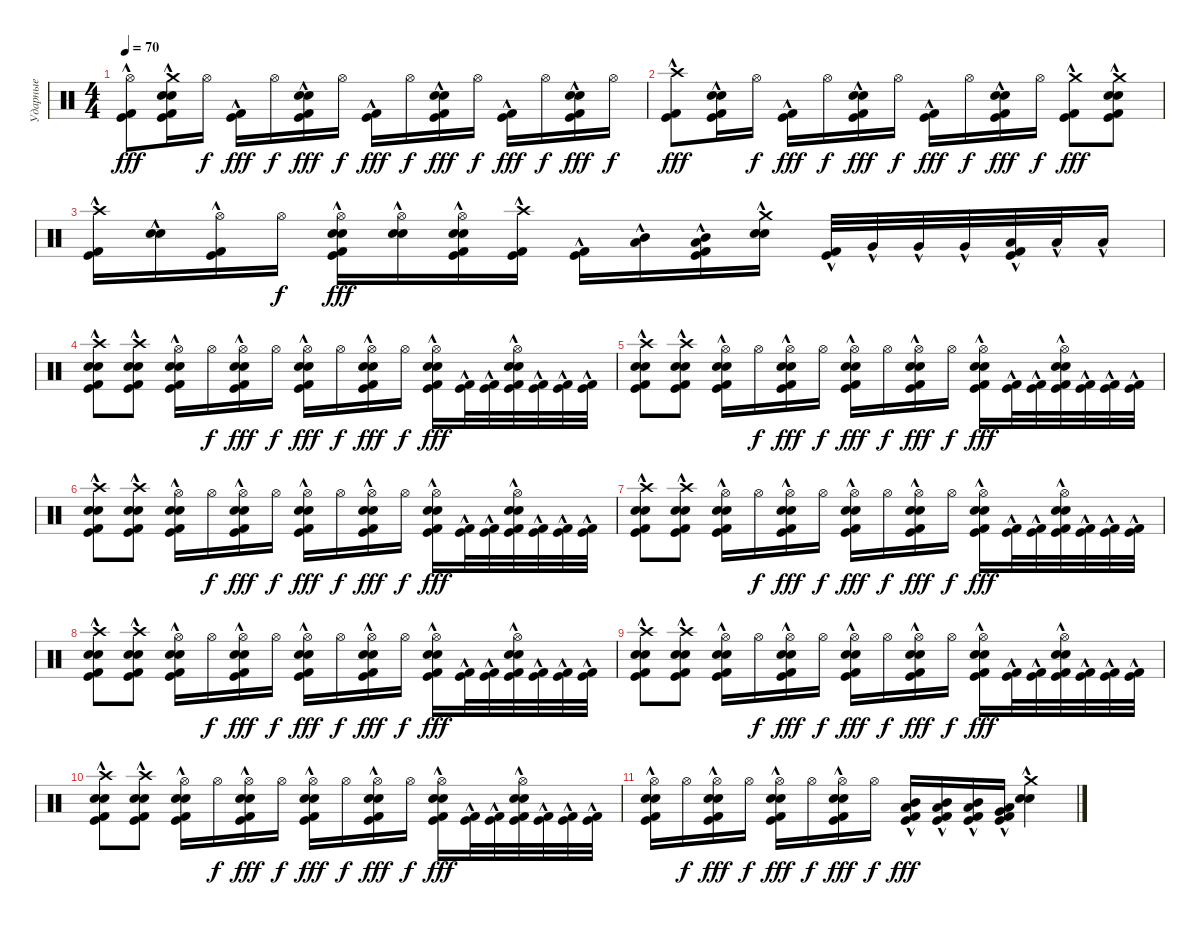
\track ("Ударные" "Ударные") {instrument percussion}
\staff {score}
\articulation defaults
\ts (4 4)
\tempo 70
\clef neutral
\ks c
("Hi-Hat (open)" "Kick (hit)"{hac} "Kick (hit) 2"{hac}).8{dy fff} ("Crash medium (hit)"{hac} "Snare (hit) 2"{hac} "Electric Snare (hit)"{hac} "Kick (hit)"{hac} "Kick (hit) 2"{hac}).16 "Hi-Hat (open)".16{dy f} ("Kick (hit)"{hac} "Kick (hit) 2"{hac}).16{dy fff} "Hi-Hat (open)".16{dy f} ("Snare (hit) 2"{hac} "Electric Snare (hit)"{hac} "Kick (hit)"{hac} "Kick (hit) 2"{hac}).16{dy fff} "Hi-Hat (open)".16{dy f} ("Kick (hit)"{hac} "Kick (hit) 2"{hac}).16{dy fff} "Hi-Hat (open)".16{dy f} ("Snare (hit) 2"{hac} "Electric Snare (hit)"{hac} "Kick (hit)"{hac} "Kick (hit) 2"{hac}).16{dy fff} "Hi-Hat (open)".16{dy f} ("Kick (hit)"{hac} "Kick (hit) 2"{hac}).16{dy fff} "Hi-Hat (open)".16{dy f} ("Snare (hit) 2"{hac} "Electric Snare (hit)"{hac} "Kick (hit)"{hac} "Kick (hit) 2"{hac}).16{dy fff} "Hi-Hat (open)".16{dy f} |
("Crash high (hit)"{hac} "Kick (hit)"{hac} "Kick (hit) 2"{hac}).8{dy fff} ("Snare (hit) 2"{hac} "Electric Snare (hit)"{hac} "Kick (hit)"{hac} "Kick (hit) 2"{hac}).16 "Hi-Hat (open)".16{dy f} ("Kick (hit)"{hac} "Kick (hit) 2"{hac}).16{dy fff} "Hi-Hat (open)".16{dy f} ("Snare (hit) 2"{hac} "Electric Snare (hit)"{hac} "Kick (hit)"{hac} "Kick (hit) 2"{hac}).16{dy fff} "Hi-Hat (open)".16{dy f} ("Kick (hit)"{hac} "Kick (hit) 2"{hac}).16{dy fff} "Hi-Hat (open)".16{dy f} ("Snare (hit) 2"{hac} "Electric Snare (hit)"{hac} "Kick (hit)"{hac} "Kick (hit) 2"{hac}).16{dy fff} "Hi-Hat (open)".16{dy f} ("Crash medium (hit)"{hac} "Kick (hit)"{hac} "Kick (hit) 2"{hac}).8{dy fff} ("Crash medium (hit)"{hac} "Snare (hit) 2"{hac} "Electric Snare (hit)"{hac} "Kick (hit)"{hac} "Kick (hit) 2"{hac}).8 |
("Crash high (hit)"{hac} "Kick (hit) 2"{hac} "Kick (hit)"{hac}).16 ("Snare (hit) 2"{hac} "Electric Snare (hit)"{hac}).16 ("Hi-Hat (open)" "Kick (hit) 2"{hac} "Kick (hit)"{hac}).16 "Hi-Hat (open)".16{dy f} ("Hi-Hat (open)" "Snare (hit) 2"{hac} "Electric Snare (hit)"{hac} "Kick (hit) 2"{hac} "Kick (hit)"{hac}).16{dy fff} ("Hi-Hat (open)" "Snare (hit) 2"{hac} "Electric Snare (hit)"{hac}).16 ("Hi-Hat (open)" "Snare (hit) 2"{hac} "Electric Snare (hit)"{hac} "Kick (hit) 2"{hac} "Kick (hit)"{hac}).16 ("Crash high (hit)"{hac} "Kick (hit)"{hac} "Kick (hit) 2"{hac}).16 ("Kick (hit) 2"{hac} "Kick (hit)"{hac}).16 ("Mid Tom (hit)"{hac} "Low Tom (hit)"{hac}).16 ("Mid Tom (hit)"{hac} "Low Tom (hit)"{hac} "Kick (hit) 2"{hac} "Kick (hit)"{hac}).16 ("Crash medium (hit)"{hac} "Electric Snare (hit)"{hac} "Snare (hit) 2").16 ("Kick (hit) 2"{hac} "Kick (hit)"{hac}).32 "Very Low Tom (hit)"{hac}.32 "Very Low Tom (hit)"{hac}.32 "Very Low Tom (hit)"{hac}.32 ("Low Floor Tom (hit)"{hac} "Kick (hit)"{hac} "Kick (hit) 2"{hac}).32 "Low Floor Tom (hit)"{hac}.32 "Low Floor Tom (hit)"{hac}.16 |
("Crash high (hit)"{hac} "Kick (hit) 2"{hac} "Snare (hit) 2"{hac} "Kick (hit)"{hac} "Electric Snare (hit)"{hac}).8 ("Crash high (hit)"{hac} "Kick (hit) 2"{hac} "Snare (hit) 2"{hac} "Kick (hit)"{hac} "Electric Snare (hit)"{hac}).8 ("Hi-Hat (open)" "Kick (hit) 2"{hac} "Snare (hit) 2"{hac} "Kick (hit)"{hac} "Electric Snare (hit)"{hac}).16 "Hi-Hat (open)".16{dy f} ("Hi-Hat (open)" "Kick (hit) 2"{hac} "Snare (hit) 2"{hac} "Kick (hit)"{hac} "Electric Snare (hit)"{hac}).16{dy fff} "Hi-Hat (open)".16{dy f} ("Hi-Hat (open)" "Kick (hit) 2"{hac} "Snare (hit) 2"{hac} "Kick (hit)"{hac} "Electric Snare (hit)"{hac}).16{dy fff} "Hi-Hat (open)".16{dy f} ("Hi-Hat (open)" "Kick (hit) 2"{hac} "Snare (hit) 2"{hac} "Kick (hit)"{hac} "Electric Snare (hit)"{hac}).16{dy fff} "Hi-Hat (open)".16{dy f} ("Hi-Hat (open)" "Kick (hit) 2"{hac} "Snare (hit) 2"{hac} "Kick (hit)"{hac} "Electric Snare (hit)"{hac}).16{dy fff} ("Kick (hit) 2"{hac} "Kick (hit)"{hac}).32 ("Kick (hit) 2"{hac} "Kick (hit)"{hac}).32 ("Hi-Hat (open)" "Kick (hit) 2"{hac} "Snare (hit) 2"{hac} "Kick (hit)"{hac} "Electric Snare (hit)"{hac}).32 ("Kick (hit) 2"{hac} "Kick (hit)"{hac}).32 ("Kick (hit) 2"{hac} "Kick (hit)"{hac}).32 ("Kick (hit) 2"{hac} "Kick (hit)"{hac}).32 |
("Crash high (hit)"{hac} "Kick (hit) 2"{hac} "Snare (hit) 2"{hac} "Kick (hit)"{hac} "Electric Snare (hit)"{hac}).8 ("Crash high (hit)"{hac} "Kick (hit) 2"{hac} "Snare (hit) 2"{hac} "Kick (hit)" "Electric Snare (hit)"{hac}).8 ("Hi-Hat (open)" "Kick (hit) 2"{hac} "Snare (hit) 2"{hac} "Kick (hit)"{hac} "Electric Snare (hit)"{hac}).16 "Hi-Hat (open)".16{dy f} ("Hi-Hat (open)" "Kick (hit) 2"{hac} "Snare (hit) 2"{hac} "Kick (hit)"{hac} "Electric Snare (hit)"{hac}).16{dy fff} "Hi-Hat (open)".16{dy f} ("Hi-Hat (open)" "Kick (hit) 2"{hac} "Snare (hit) 2"{hac} "Kick (hit)"{hac} "Electric Snare (hit)"{hac}).16{dy fff} "Hi-Hat (open)".16{dy f} ("Hi-Hat (open)" "Kick (hit) 2"{hac} "Snare (hit) 2"{hac} "Kick (hit)"{hac} "Electric Snare (hit)"{hac}).16{dy fff} "Hi-Hat (open)".16{dy f} ("Hi-Hat (open)" "Kick (hit) 2"{hac} "Snare (hit) 2"{hac} "Kick (hit)"{hac} "Electric Snare (hit)"{hac}).16{dy fff} ("Kick (hit) 2"{hac} "Kick (hit)"{hac}).32 ("Kick (hit) 2"{hac} "Kick (hit)"{hac}).32 ("Hi-Hat (open)" "Kick (hit) 2"{hac} "Snare (hit) 2"{hac} "Kick (hit)"{hac} "Electric Snare (hit)"{hac}).32 ("Kick (hit) 2"{hac} "Kick (hit)"{hac}).32 ("Kick (hit) 2"{hac} "Kick (hit)"{hac}).32 ("Kick (hit) 2"{hac} "Kick (hit)"{hac}).32 |
("Crash high (hit)"{hac} "Kick (hit) 2"{hac} "Snare (hit) 2"{hac} "Kick (hit)"{hac} "Electric Snare (hit)"{hac}).8 ("Crash high (hit)"{hac} "Kick (hit) 2"{hac} "Snare (hit) 2"{hac} "Kick (hit)"{hac} "Electric Snare (hit)"{hac}).8 ("Hi-Hat (open)" "Kick (hit) 2"{hac} "Snare (hit) 2"{hac} "Kick (hit)"{hac} "Electric Snare (hit)"{hac}).16 "Hi-Hat (open)".16{dy f} ("Hi-Hat (open)" "Kick (hit) 2"{hac} "Snare (hit) 2"{hac} "Kick (hit)"{hac} "Electric Snare (hit)"{hac}).16{dy fff} "Hi-Hat (open)".16{dy f} ("Hi-Hat (open)" "Kick (hit) 2"{hac} "Snare (hit) 2"{hac} "Kick (hit)"{hac} "Electric Snare (hit)"{hac}).16{dy fff} "Hi-Hat (open)".16{dy f} ("Hi-Hat (open)" "Kick (hit) 2"{hac} "Snare (hit) 2"{hac} "Kick (hit)"{hac} "Electric Snare (hit)"{hac}).16{dy fff} "Hi-Hat (open)".16{dy f} ("Hi-Hat (open)" "Kick (hit) 2"{hac} "Snare (hit) 2"{hac} "Kick (hit)"{hac} "Electric Snare (hit)"{hac}).16{dy fff} ("Kick (hit) 2"{hac} "Kick (hit)"{hac}).32 ("Kick (hit) 2"{hac} "Kick (hit)"{hac}).32 ("Hi-Hat (open)" "Kick (hit) 2"{hac} "Snare (hit) 2"{hac} "Kick (hit)"{hac} "Electric Snare (hit)"{hac}).32 ("Kick (hit) 2"{hac} "Kick (hit)"{hac}).32 ("Kick (hit) 2"{hac} "Kick (hit)"{hac}).32 ("Kick (hit) 2"{hac} "Kick (hit)"{hac}).32 |
("Crash high (hit)"{hac} "Kick (hit) 2"{hac} "Snare (hit) 2"{hac} "Kick (hit)"{hac} "Electric Snare (hit)"{hac}).8 ("Crash high (hit)"{hac} "Kick (hit) 2"{hac} "Snare (hit) 2"{hac} "Kick (hit)"{hac} "Electric Snare (hit)"{hac}).8 ("Hi-Hat (open)" "Kick (hit) 2"{hac} "Snare (hit) 2"{hac} "Kick (hit)"{hac} "Electric Snare (hit)"{hac}).16 "Hi-Hat (open)".16{dy f} ("Hi-Hat (open)" "Kick (hit) 2"{hac} "Snare (hit) 2"{hac} "Kick (hit)"{hac} "Electric Snare (hit)"{hac}).16{dy fff} "Hi-Hat (open)".16{dy f} ("Hi-Hat (open)" "Kick (hit) 2"{hac} "Snare (hit) 2"{hac} "Kick (hit)"{hac} "Electric Snare (hit)"{hac}).16{dy fff} "Hi-Hat (open)".16{dy f} ("Hi-Hat (open)" "Kick (hit) 2"{hac} "Snare (hit) 2"{hac} "Kick (hit)"{hac} "Electric Snare (hit)"{hac}).16{dy fff} "Hi-Hat (open)".16{dy f} ("Hi-Hat (open)" "Kick (hit) 2"{hac} "Snare (hit) 2"{hac} "Kick (hit)"{hac} "Electric Snare (hit)"{hac}).16{dy fff} ("Kick (hit) 2"{hac} "Kick (hit)"{hac}).32 ("Kick (hit) 2"{hac} "Kick (hit)"{hac}).32 ("Hi-Hat (open)" "Kick (hit) 2"{hac} "Snare (hit) 2"{hac} "Kick (hit)"{hac} "Electric Snare (hit)"{hac}).32 ("Kick (hit) 2"{hac} "Kick (hit)"{hac}).32 ("Kick (hit) 2"{hac} "Kick (hit)"{hac}).32 ("Kick (hit) 2"{hac} "Kick (hit)"{hac}).32 |
("Crash high (hit)"{hac} "Kick (hit) 2"{hac} "Snare (hit) 2"{hac} "Kick (hit)"{hac} "Electric Snare (hit)"{hac}).8 ("Crash high (hit)"{hac} "Kick (hit) 2"{hac} "Snare (hit) 2"{hac} "Kick (hit)"{hac} "Electric Snare (hit)"{hac}).8 ("Hi-Hat (open)" "Kick (hit) 2"{hac} "Snare (hit) 2"{hac} "Kick (hit)"{hac} "Electric Snare (hit)"{hac}).16 "Hi-Hat (open)".16{dy f} ("Hi-Hat (open)" "Kick (hit) 2"{hac} "Snare (hit) 2"{hac} "Kick (hit)"{hac} "Electric Snare (hit)"{hac}).16{dy fff} "Hi-Hat (open)".16{dy f} ("Hi-Hat (open)" "Kick (hit) 2"{hac} "Snare (hit) 2"{hac} "Kick (hit)"{hac} "Electric Snare (hit)"{hac}).16{dy fff} "Hi-Hat (open)".16{dy f} ("Hi-Hat (open)" "Kick (hit) 2"{hac} "Snare (hit) 2"{hac} "Kick (hit)"{hac} "Electric Snare (hit)"{hac}).16{dy fff} "Hi-Hat (open)".16{dy f} ("Hi-Hat (open)" "Kick (hit) 2"{hac} "Snare (hit) 2"{hac} "Kick (hit)"{hac} "Electric Snare (hit)"{hac}).16{dy fff} ("Kick (hit) 2"{hac} "Kick (hit)"{hac}).32 ("Kick (hit) 2"{hac} "Kick (hit)"{hac}).32 ("Hi-Hat (open)" "Kick (hit) 2"{hac} "Snare (hit) 2"{hac} "Kick (hit)"{hac} "Electric Snare (hit)"{hac}).32 ("Kick (hit) 2"{hac} "Kick (hit)"{hac}).32 ("Kick (hit) 2"{hac} "Kick (hit)"{hac}).32 ("Kick (hit) 2"{hac} "Kick (hit)"{hac}).32 |
("Crash high (hit)"{hac} "Kick (hit) 2"{hac} "Snare (hit) 2"{hac} "Kick (hit)"{hac} "Electric Snare (hit)"{hac}).8 ("Crash high (hit)"{hac} "Kick (hit) 2"{hac} "Snare (hit) 2"{hac} "Kick (hit)"{hac} "Electric Snare (hit)"{hac}).8 ("Hi-Hat (open)" "Kick (hit) 2"{hac} "Snare (hit) 2"{hac} "Kick (hit)"{hac} "Electric Snare (hit)"{hac}).16 "Hi-Hat (open)".16{dy f} ("Hi-Hat (open)" "Kick (hit) 2"{hac} "Snare (hit) 2"{hac} "Kick (hit)"{hac} "Electric Snare (hit)"{hac}).16{dy fff} "Hi-Hat (open)".16{dy f} ("Hi-Hat (open)" "Kick (hit) 2"{hac} "Snare (hit) 2"{hac} "Kick (hit)"{hac} "Electric Snare (hit)"{hac}).16{dy fff} "Hi-Hat (open)".16{dy f} ("Hi-Hat (open)" "Kick (hit) 2"{hac} "Snare (hit) 2"{hac} "Kick (hit)"{hac} "Electric Snare (hit)"{hac}).16{dy fff} "Hi-Hat (open)".16{dy f} ("Hi-Hat (open)" "Kick (hit) 2"{hac} "Snare (hit) 2"{hac} "Kick (hit)"{hac} "Electric Snare (hit)"{hac}).16{dy fff} ("Kick (hit) 2"{hac} "Kick (hit)"{hac}).32 ("Kick (hit) 2"{hac} "Kick (hit)"{hac}).32 ("Hi-Hat (open)" "Kick (hit) 2"{hac} "Snare (hit) 2"{hac} "Kick (hit)"{hac} "Electric Snare (hit)"{hac}).32 ("Kick (hit) 2"{hac} "Kick (hit)"{hac}).32 ("Kick (hit) 2"{hac} "Kick (hit)"{hac}).32 ("Kick (hit) 2"{hac} "Kick (hit)"{hac}).32 |
("Crash high (hit)"{hac} "Kick (hit) 2"{hac} "Snare (hit) 2"{hac} "Kick (hit)"{hac} "Electric Snare (hit)"{hac}).8 ("Crash high (hit)"{hac} "Kick (hit) 2"{hac} "Snare (hit) 2"{hac} "Kick (hit)"{hac} "Electric Snare (hit)"{hac}).8 ("Hi-Hat (open)" "Kick (hit) 2"{hac} "Snare (hit) 2"{hac} "Kick (hit)"{hac} "Electric Snare (hit)"{hac}).16 "Hi-Hat (open)".16{dy f} ("Hi-Hat (open)" "Kick (hit) 2"{hac} "Snare (hit) 2"{hac} "Kick (hit)"{hac} "Electric Snare (hit)"{hac}).16{dy fff} "Hi-Hat (open)".16{dy f} ("Hi-Hat (open)" "Kick (hit) 2"{hac} "Snare (hit) 2"{hac} "Kick (hit)"{hac} "Electric Snare (hit)"{hac}).16{dy fff} "Hi-Hat (open)".16{dy f} ("Hi-Hat (open)" "Kick (hit) 2"{hac} "Snare (hit) 2"{hac} "Kick (hit)"{hac} "Electric Snare (hit)"{hac}).16{dy fff} "Hi-Hat (open)".16{dy f} ("Hi-Hat (open)" "Kick (hit) 2"{hac} "Snare (hit) 2"{hac} "Kick (hit)"{hac} "Electric Snare (hit)"{hac}).16{dy fff} ("Kick (hit) 2"{hac} "Kick (hit)"{hac}).32 ("Kick (hit) 2"{hac} "Kick (hit)"{hac}).32 ("Hi-Hat (open)" "Kick (hit) 2"{hac} "Snare (hit) 2"{hac} "Kick (hit)"{hac} "Electric Snare (hit)"{hac}).32 ("Kick (hit) 2"{hac} "Kick (hit)"{hac}).32 ("Kick (hit) 2"{hac} "Kick (hit)"{hac}).32 ("Kick (hit) 2"{hac} "Kick (hit)"{hac}).32 |
("Hi-Hat (open)" "Kick (hit) 2"{hac} "Snare (hit) 2"{hac} "Kick (hit)"{hac} "Electric Snare (hit)").16 "Hi-Hat (open)".16{dy f} ("Hi-Hat (open)" "Kick (hit) 2" "Snare (hit) 2"{hac} "Kick (hit)"{hac} "Electric Snare (hit)"{hac}).16{dy fff} "Hi-Hat (open)".16{dy f} ("Hi-Hat (open)" "Kick (hit) 2"{hac} "Snare (hit) 2"{hac} "Kick (hit)"{hac} "Electric Snare (hit)"{hac}).16{dy fff} "Hi-Hat (open)".16{dy f} ("Hi-Hat (open)" "Kick (hit) 2"{hac} "Snare (hit) 2"{hac} "Kick (hit)"{hac} "Electric Snare (hit)"{hac}).16{dy fff} "Hi-Hat (open)".16{dy f} ("Low Tom (hit)"{hac} "Kick (hit) 2"{hac} "Mid Tom (hit)"{hac} "Kick (hit)"{hac}).16{dy fff} ("Low Tom (hit)"{hac} "Kick (hit) 2"{hac} "Mid Tom (hit)"{hac} "Kick (hit)"{hac}).16 ("Low Tom (hit)"{hac} "Kick (hit) 2"{hac} "Mid Tom (hit)"{hac} "Kick (hit)"{hac}).16 ("Very Low Tom (hit)"{hac} "Kick (hit) 2"{hac} "Low Floor Tom (hit)"{hac} "Kick (hit)"{hac}).16 ("Crash medium (hit)"{hac} "Snare (hit) 2"{hac} "Electric Snare (hit)"{hac}).4
